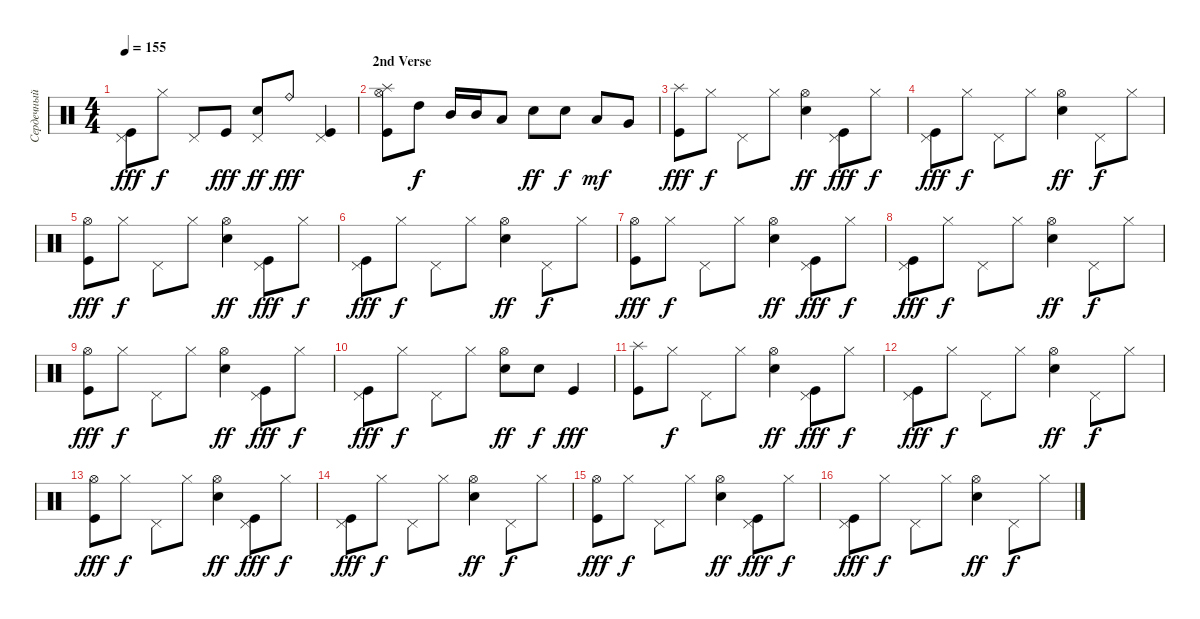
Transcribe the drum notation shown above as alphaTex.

\track ("Сердечный (Ударные)" "Сердечный ") {instrument percussion}
\staff {score}
\articulation defaults
\ts (4 4)
\tempo 155
\clef neutral
\ks c
("Kick (hit)" "Pedal Hi-Hat (hit)").8{dy fff} "Hi-Hat (closed)".8{dy f} "Pedal Hi-Hat (hit)".8 "Kick (hit)".8{dy fff} ("Electric Snare (hit)" "Pedal Hi-Hat (hit)").8{dy ff} "Ride (bell)".8{dy fff} ("Kick (hit)" "Pedal Hi-Hat (hit)").4 |
\section ("" "2nd Verse")
("Hi-Hat (open)" "Splash (hit)" "Kick (hit)").8 "High Tom (hit)".8{dy f} "Mid Tom (hit)".16 "Mid Tom (hit)".16 "Low Tom (hit)".8 "Electric Snare (hit)".8{dy ff} "Electric Snare (hit)".8{dy f} "Low Tom (hit)".8{dy mf} "Very Low Tom (hit)".8 |
("Splash (hit)" "Kick (hit)").8{dy fff} "Hi-Hat (closed)".8{dy f} "Pedal Hi-Hat (hit)".8 "Hi-Hat (closed)".8 ("Hi-Hat (open)" "Electric Snare (hit)").4{dy ff} ("Kick (hit)" "Pedal Hi-Hat (hit)").8{dy fff} "Hi-Hat (closed)".8{dy f} |
("Kick (hit)" "Pedal Hi-Hat (hit)").8{dy fff} "Hi-Hat (closed)".8{dy f} "Pedal Hi-Hat (hit)".8 "Hi-Hat (closed)".8 ("Hi-Hat (open)" "Electric Snare (hit)").4{dy ff} "Pedal Hi-Hat (hit)".8{dy f} "Hi-Hat (closed)".8 |
("Hi-Hat (open)" "Kick (hit)").8{dy fff} "Hi-Hat (closed)".8{dy f} "Pedal Hi-Hat (hit)".8 "Hi-Hat (closed)".8 ("Hi-Hat (open)" "Electric Snare (hit)").4{dy ff} ("Kick (hit)" "Pedal Hi-Hat (hit)").8{dy fff} "Hi-Hat (closed)".8{dy f} |
("Kick (hit)" "Pedal Hi-Hat (hit)").8{dy fff} "Hi-Hat (closed)".8{dy f} "Pedal Hi-Hat (hit)".8 "Hi-Hat (closed)".8 ("Hi-Hat (open)" "Electric Snare (hit)").4{dy ff} "Pedal Hi-Hat (hit)".8{dy f} "Hi-Hat (closed)".8 |
("Hi-Hat (open)" "Kick (hit)").8{dy fff} "Hi-Hat (closed)".8{dy f} "Pedal Hi-Hat (hit)".8 "Hi-Hat (closed)".8 ("Hi-Hat (open)" "Electric Snare (hit)").4{dy ff} ("Kick (hit)" "Pedal Hi-Hat (hit)").8{dy fff} "Hi-Hat (closed)".8{dy f} |
("Kick (hit)" "Pedal Hi-Hat (hit)").8{dy fff} "Hi-Hat (closed)".8{dy f} "Pedal Hi-Hat (hit)".8 "Hi-Hat (closed)".8 ("Hi-Hat (open)" "Electric Snare (hit)").4{dy ff} "Pedal Hi-Hat (hit)".8{dy f} "Hi-Hat (closed)".8 |
("Hi-Hat (open)" "Kick (hit)").8{dy fff} "Hi-Hat (closed)".8{dy f} "Pedal Hi-Hat (hit)".8 "Hi-Hat (closed)".8 ("Hi-Hat (open)" "Electric Snare (hit)").4{dy ff} ("Kick (hit)" "Pedal Hi-Hat (hit)").8{dy fff} "Hi-Hat (closed)".8{dy f} |
("Kick (hit)" "Pedal Hi-Hat (hit)").8{dy fff} "Hi-Hat (closed)".8{dy f} "Pedal Hi-Hat (hit)".8 "Hi-Hat (closed)".8 ("Hi-Hat (open)" "Electric Snare (hit)").8{dy ff} "Electric Snare (hit)".8{dy f} "Kick (hit)".4{dy fff} |
("Splash (hit)" "Kick (hit)").8 "Hi-Hat (closed)".8{dy f} "Pedal Hi-Hat (hit)".8 "Hi-Hat (closed)".8 ("Hi-Hat (open)" "Electric Snare (hit)").4{dy ff} ("Kick (hit)" "Pedal Hi-Hat (hit)").8{dy fff} "Hi-Hat (closed)".8{dy f} |
("Kick (hit)" "Pedal Hi-Hat (hit)").8{dy fff} "Hi-Hat (closed)".8{dy f} "Pedal Hi-Hat (hit)".8 "Hi-Hat (closed)".8 ("Hi-Hat (open)" "Electric Snare (hit)").4{dy ff} "Pedal Hi-Hat (hit)".8{dy f} "Hi-Hat (closed)".8 |
("Hi-Hat (open)" "Kick (hit)").8{dy fff} "Hi-Hat (closed)".8{dy f} "Pedal Hi-Hat (hit)".8 "Hi-Hat (closed)".8 ("Hi-Hat (open)" "Electric Snare (hit)").4{dy ff} ("Kick (hit)" "Pedal Hi-Hat (hit)").8{dy fff} "Hi-Hat (closed)".8{dy f} |
("Kick (hit)" "Pedal Hi-Hat (hit)").8{dy fff} "Hi-Hat (closed)".8{dy f} "Pedal Hi-Hat (hit)".8 "Hi-Hat (closed)".8 ("Hi-Hat (open)" "Electric Snare (hit)").4{dy ff} "Pedal Hi-Hat (hit)".8{dy f} "Hi-Hat (closed)".8 |
("Hi-Hat (open)" "Kick (hit)").8{dy fff} "Hi-Hat (closed)".8{dy f} "Pedal Hi-Hat (hit)".8 "Hi-Hat (closed)".8 ("Hi-Hat (open)" "Electric Snare (hit)").4{dy ff} ("Kick (hit)" "Pedal Hi-Hat (hit)").8{dy fff} "Hi-Hat (closed)".8{dy f} |
("Kick (hit)" "Pedal Hi-Hat (hit)").8{dy fff} "Hi-Hat (closed)".8{dy f} "Pedal Hi-Hat (hit)".8 "Hi-Hat (closed)".8 ("Hi-Hat (open)" "Electric Snare (hit)").4{dy ff} "Pedal Hi-Hat (hit)".8{dy f} "Hi-Hat (closed)".8
